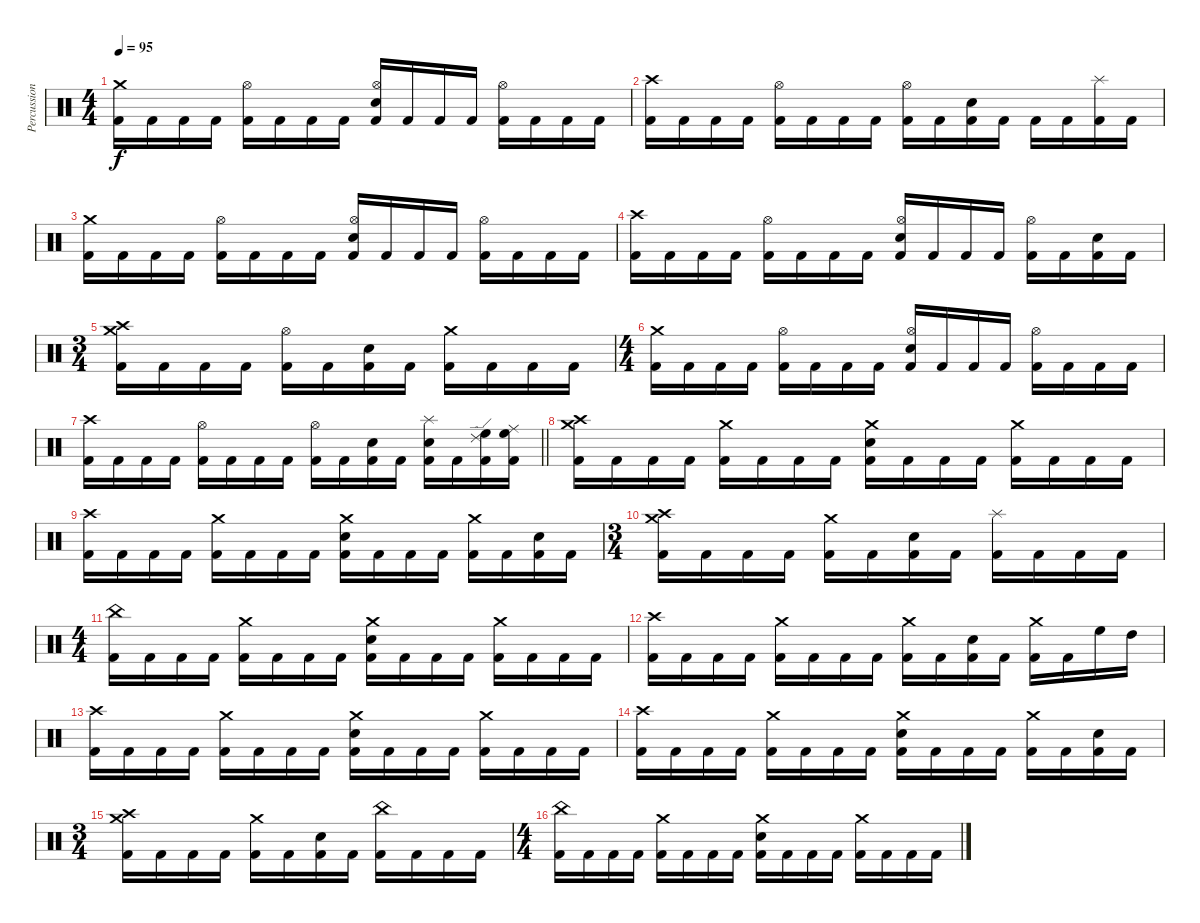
\track ("Percussion" "Percussion") {instrument percussion}
\staff {score}
\articulation defaults
\ts (4 4)
\tempo 95
\clef neutral
\ks c
("Crash medium (hit)" "Kick (hit) 2").16{dy f} "Kick (hit) 2".16 "Kick (hit) 2".16 "Kick (hit) 2".16 ("Hi-Hat (open)" "Kick (hit) 2").16 "Kick (hit) 2".16 "Kick (hit) 2".16 "Kick (hit) 2".16 ("Hi-Hat (open)" "Electric Snare (hit)" "Kick (hit) 2").16 "Kick (hit) 2".16 "Kick (hit) 2".16 "Kick (hit) 2".16 ("Hi-Hat (open)" "Kick (hit) 2").16 "Kick (hit) 2".16 "Kick (hit) 2".16 "Kick (hit) 2".16 |
("Crash high (hit)" "Kick (hit) 2").16 "Kick (hit) 2".16 "Kick (hit) 2".16 "Kick (hit) 2".16 ("Hi-Hat (open)" "Kick (hit) 2").16 "Kick (hit) 2".16 "Kick (hit) 2".16 "Kick (hit) 2".16 ("Hi-Hat (open)" "Kick (hit) 2").16 "Kick (hit) 2".16 ("Electric Snare (hit)" "Kick (hit) 2").16 "Kick (hit) 2".16 "Kick (hit) 2".16 "Kick (hit) 2".16 ("Splash (hit)" "Kick (hit) 2").16 "Kick (hit) 2".16 |
("Crash medium (hit)" "Kick (hit) 2").16 "Kick (hit) 2".16 "Kick (hit) 2".16 "Kick (hit) 2".16 ("Hi-Hat (open)" "Kick (hit) 2").16 "Kick (hit) 2".16 "Kick (hit) 2".16 "Kick (hit) 2".16 ("Hi-Hat (open)" "Electric Snare (hit)" "Kick (hit) 2").16 "Kick (hit) 2".16 "Kick (hit) 2".16 "Kick (hit) 2".16 ("Hi-Hat (open)" "Kick (hit) 2").16 "Kick (hit) 2".16 "Kick (hit) 2".16 "Kick (hit) 2".16 |
("Crash high (hit)" "Kick (hit) 2").16 "Kick (hit) 2".16 "Kick (hit) 2".16 "Kick (hit) 2".16 ("Hi-Hat (open)" "Kick (hit) 2").16 "Kick (hit) 2".16 "Kick (hit) 2".16 "Kick (hit) 2".16 ("Hi-Hat (open)" "Electric Snare (hit)" "Kick (hit) 2").16 "Kick (hit) 2".16 "Kick (hit) 2".16 "Kick (hit) 2".16 ("Hi-Hat (open)" "Kick (hit) 2").16 "Kick (hit) 2".16 ("Electric Snare (hit)" "Kick (hit) 2").16 "Kick (hit) 2".16 |
\ts (3 4)
("Crash high (hit)" "Crash medium (hit)" "Kick (hit) 2").16 "Kick (hit) 2".16 "Kick (hit) 2".16 "Kick (hit) 2".16 ("Hi-Hat (open)" "Kick (hit) 2").16 "Kick (hit) 2".16 ("Electric Snare (hit)" "Kick (hit) 2").16 "Kick (hit) 2".16 ("Crash medium (hit)" "Kick (hit) 2").16 "Kick (hit) 2".16 "Kick (hit) 2".16 "Kick (hit) 2".16 |
\ts (4 4)
("Crash medium (hit)" "Kick (hit) 2").16 "Kick (hit) 2".16 "Kick (hit) 2".16 "Kick (hit) 2".16 ("Hi-Hat (open)" "Kick (hit) 2").16 "Kick (hit) 2".16 "Kick (hit) 2".16 "Kick (hit) 2".16 ("Hi-Hat (open)" "Electric Snare (hit)" "Kick (hit) 2").16 "Kick (hit) 2".16 "Kick (hit) 2".16 "Kick (hit) 2".16 ("Hi-Hat (open)" "Kick (hit) 2").16 "Kick (hit) 2".16 "Kick (hit) 2".16 "Kick (hit) 2".16 |
\barLineRight lightlight
("Crash high (hit)" "Kick (hit) 2").16 "Kick (hit) 2".16 "Kick (hit) 2".16 "Kick (hit) 2".16 ("Hi-Hat (open)" "Kick (hit) 2").16 "Kick (hit) 2".16 "Kick (hit) 2".16 "Kick (hit) 2".16 ("Hi-Hat (open)" "Kick (hit) 2").16 "Kick (hit) 2".16 ("Electric Snare (hit)" "Kick (hit) 2").16 "Kick (hit) 2".16 ("Splash (hit)" "Electric Snare (hit)" "Kick (hit) 2").16 "Kick (hit) 2".16 ("Ride (edge) 2" "High Floor Tom (hit)" "Kick (hit) 2").16 ("Ride (middle)" "High Floor Tom (hit)" "Kick (hit) 2").16 |
("Crash high (hit)" "Crash medium (hit)" "Kick (hit) 2").16 "Kick (hit) 2".16 "Kick (hit) 2".16 "Kick (hit) 2".16 ("Crash medium (hit)" "Kick (hit) 2").16 "Kick (hit) 2".16 "Kick (hit) 2".16 "Kick (hit) 2".16 ("Crash medium (hit)" "Electric Snare (hit)" "Kick (hit) 2").16 "Kick (hit) 2".16 "Kick (hit) 2".16 "Kick (hit) 2".16 ("Crash medium (hit)" "Kick (hit) 2").16 "Kick (hit) 2".16 "Kick (hit) 2".16 "Kick (hit) 2".16 |
("Crash high (hit)" "Kick (hit) 2").16 "Kick (hit) 2".16 "Kick (hit) 2".16 "Kick (hit) 2".16 ("Crash medium (hit)" "Kick (hit) 2").16 "Kick (hit) 2".16 "Kick (hit) 2".16 "Kick (hit) 2".16 ("Crash medium (hit)" "Electric Snare (hit)" "Kick (hit) 2").16 "Kick (hit) 2".16 "Kick (hit) 2".16 "Kick (hit) 2".16 ("Crash medium (hit)" "Kick (hit) 2").16 "Kick (hit) 2".16 ("Electric Snare (hit)" "Kick (hit) 2").16 "Kick (hit) 2".16 |
\ts (3 4)
("Crash high (hit)" "Crash medium (hit)" "Kick (hit) 2").16 "Kick (hit) 2".16 "Kick (hit) 2".16 "Kick (hit) 2".16 ("Crash medium (hit)" "Kick (hit) 2").16 "Kick (hit) 2".16 ("Electric Snare (hit)" "Kick (hit) 2").16 "Kick (hit) 2".16 ("Splash (hit)" "Kick (hit) 2").16 "Kick (hit) 2".16 "Kick (hit) 2".16 "Kick (hit) 2".16 |
\ts (4 4)
("China (hit)" "Kick (hit) 2").16 "Kick (hit) 2".16 "Kick (hit) 2".16 "Kick (hit) 2".16 ("Crash medium (hit)" "Kick (hit) 2").16 "Kick (hit) 2".16 "Kick (hit) 2".16 "Kick (hit) 2".16 ("Crash medium (hit)" "Electric Snare (hit)" "Kick (hit) 2").16 "Kick (hit) 2".16 "Kick (hit) 2".16 "Kick (hit) 2".16 ("Crash medium (hit)" "Kick (hit) 2").16 "Kick (hit) 2".16 "Kick (hit) 2".16 "Kick (hit) 2".16 |
("Crash high (hit)" "Kick (hit) 2").16 "Kick (hit) 2".16 "Kick (hit) 2".16 "Kick (hit) 2".16 ("Crash medium (hit)" "Kick (hit) 2").16 "Kick (hit) 2".16 "Kick (hit) 2".16 "Kick (hit) 2".16 ("Crash medium (hit)" "Kick (hit) 2").16 "Kick (hit) 2".16 ("Electric Snare (hit)" "Kick (hit) 2").16 "Kick (hit) 2".16 ("Crash medium (hit)" "Kick (hit) 2").16 "Kick (hit) 2".16 "High Floor Tom (hit)".16 "High Tom (hit)".16 |
("Crash high (hit)" "Kick (hit) 2").16 "Kick (hit) 2".16 "Kick (hit) 2".16 "Kick (hit) 2".16 ("Crash medium (hit)" "Kick (hit) 2").16 "Kick (hit) 2".16 "Kick (hit) 2".16 "Kick (hit) 2".16 ("Crash medium (hit)" "Electric Snare (hit)" "Kick (hit) 2").16 "Kick (hit) 2".16 "Kick (hit) 2".16 "Kick (hit) 2".16 ("Crash medium (hit)" "Kick (hit) 2").16 "Kick (hit) 2".16 "Kick (hit) 2".16 "Kick (hit) 2".16 |
("Crash high (hit)" "Kick (hit) 2").16 "Kick (hit) 2".16 "Kick (hit) 2".16 "Kick (hit) 2".16 ("Crash medium (hit)" "Kick (hit) 2").16 "Kick (hit) 2".16 "Kick (hit) 2".16 "Kick (hit) 2".16 ("Crash medium (hit)" "Electric Snare (hit)" "Kick (hit) 2").16 "Kick (hit) 2".16 "Kick (hit) 2".16 "Kick (hit) 2".16 ("Crash medium (hit)" "Kick (hit) 2").16 "Kick (hit) 2".16 ("Electric Snare (hit)" "Kick (hit) 2").16 "Kick (hit) 2".16 |
\ts (3 4)
("Crash high (hit)" "Crash medium (hit)" "Kick (hit) 2").16 "Kick (hit) 2".16 "Kick (hit) 2".16 "Kick (hit) 2".16 ("Crash medium (hit)" "Kick (hit) 2").16 "Kick (hit) 2".16 ("Electric Snare (hit)" "Kick (hit) 2").16 "Kick (hit) 2".16 ("China (hit)" "Kick (hit) 2").16 "Kick (hit) 2".16 "Kick (hit) 2".16 "Kick (hit) 2".16 |
\ts (4 4)
("China (hit)" "Kick (hit) 2").16 "Kick (hit) 2".16 "Kick (hit) 2".16 "Kick (hit) 2".16 ("Crash medium (hit)" "Kick (hit) 2").16 "Kick (hit) 2".16 "Kick (hit) 2".16 "Kick (hit) 2".16 ("Crash medium (hit)" "Electric Snare (hit)" "Kick (hit) 2").16 "Kick (hit) 2".16 "Kick (hit) 2".16 "Kick (hit) 2".16 ("Crash medium (hit)" "Kick (hit) 2").16 "Kick (hit) 2".16 "Kick (hit) 2".16 "Kick (hit) 2".16
